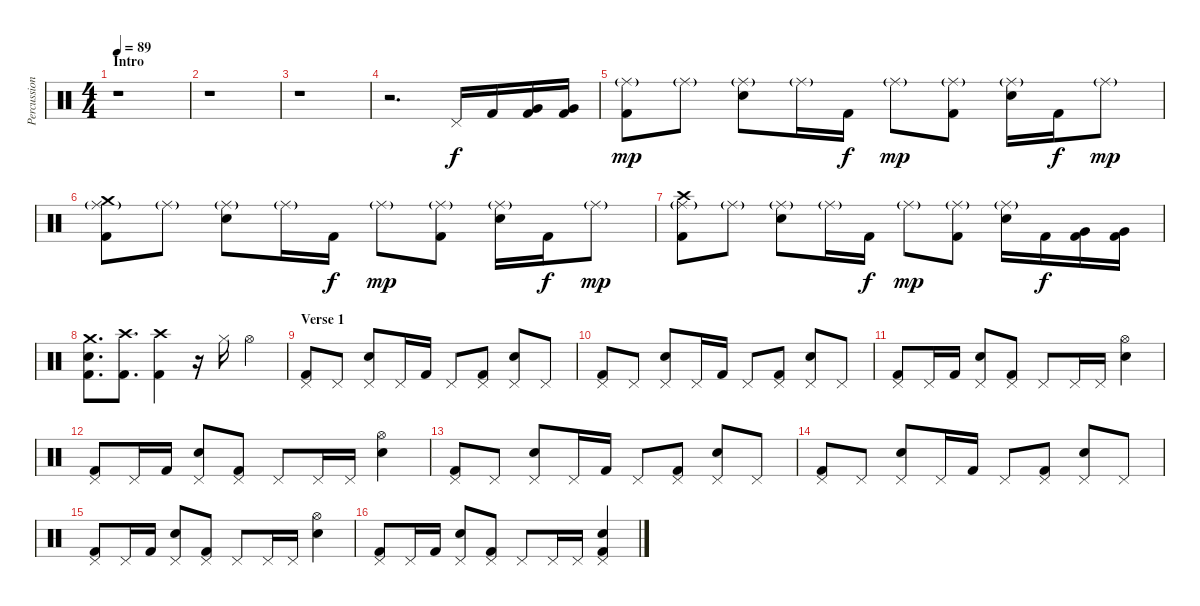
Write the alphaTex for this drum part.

\track ("Percussions" "Percussion") {instrument percussion}
\staff {score}
\articulation defaults
\ts (4 4)
\section ("" "Intro")
\tempo 89
\clef neutral
\ks c
r.1{dy f} |
r.1 |
r.1 |
r.2{d} "Pedal Hi-Hat (hit)".16 "Kick (hit) 2".16 ("Very Low Tom (hit)" "Kick (hit) 2").16 ("Very Low Tom (hit)" "Kick (hit) 2").16 |
("Ride (middle)"{g} "Kick (hit) 2").8{dy mp} "Ride (middle)"{g}.8 ("Ride (middle)"{g} "Electric Snare (hit)").8 "Ride (middle)"{g}.16 "Kick (hit) 2".16{dy f} "Ride (middle)"{g}.8{dy mp} ("Ride (middle)"{g} "Kick (hit) 2").8 ("Ride (middle)"{g} "Electric Snare (hit)").16 "Kick (hit) 2".16{dy f} "Ride (middle)"{g}.8{dy mp} |
("Crash medium (hit)" "Ride (middle)"{g} "Kick (hit) 2").8 "Ride (middle)"{g}.8 ("Ride (middle)"{g} "Electric Snare (hit)").8 "Ride (middle)"{g}.16 "Kick (hit) 2".16{dy f} "Ride (middle)"{g}.8{dy mp} ("Ride (middle)"{g} "Kick (hit) 2").8 ("Ride (middle)"{g} "Electric Snare (hit)").16 "Kick (hit) 2".16{dy f} "Ride (middle)"{g}.8{dy mp} |
("Crash high (hit)" "Ride (middle)"{g} "Kick (hit) 2").8 "Ride (middle)"{g}.8 ("Ride (middle)"{g} "Electric Snare (hit)").8 "Ride (middle)"{g}.16 "Kick (hit) 2".16{dy f} "Ride (middle)"{g}.8{dy mp} ("Ride (middle)"{g} "Kick (hit) 2").8 ("Ride (middle)"{g} "Electric Snare (hit)").16 "Kick (hit) 2".16{dy f} ("Very Low Tom (hit)" "Kick (hit) 2").16 ("Very Low Tom (hit)" "Kick (hit) 2").16 |
("Crash medium (hit)" "Electric Snare (hit)" "Kick (hit) 2").8{d} ("Crash high (hit)" "Kick (hit) 2").8{d} ("Crash high (hit)" "Kick (hit) 2").4 r.16 "Hi-Hat (closed)".16 "Hi-Hat (open)".4 |
\section ("" "Verse 1")
("Pedal Hi-Hat (hit)" "Kick (hit) 2").8 "Pedal Hi-Hat (hit)".8 ("Pedal Hi-Hat (hit)" "Electric Snare (hit)").8 "Pedal Hi-Hat (hit)".16 "Kick (hit) 2".16 "Pedal Hi-Hat (hit)".8 ("Pedal Hi-Hat (hit)" "Kick (hit) 2").8 ("Pedal Hi-Hat (hit)" "Electric Snare (hit)").8 "Pedal Hi-Hat (hit)".8 |
("Pedal Hi-Hat (hit)" "Kick (hit) 2").8 "Pedal Hi-Hat (hit)".8 ("Pedal Hi-Hat (hit)" "Electric Snare (hit)").8 "Pedal Hi-Hat (hit)".16 "Kick (hit) 2".16 "Pedal Hi-Hat (hit)".8 ("Pedal Hi-Hat (hit)" "Kick (hit) 2").8 ("Pedal Hi-Hat (hit)" "Electric Snare (hit)").8 "Pedal Hi-Hat (hit)".8 |
("Pedal Hi-Hat (hit)" "Kick (hit) 2").8 "Pedal Hi-Hat (hit)".16 "Kick (hit) 2".16 ("Pedal Hi-Hat (hit)" "Electric Snare (hit)").8 ("Pedal Hi-Hat (hit)" "Kick (hit) 2").8 "Pedal Hi-Hat (hit)".8 "Pedal Hi-Hat (hit)".16 "Pedal Hi-Hat (hit)".16 ("Hi-Hat (open)" "Electric Snare (hit)").4 |
("Pedal Hi-Hat (hit)" "Kick (hit) 2").8 "Pedal Hi-Hat (hit)".16 "Kick (hit) 2".16 ("Pedal Hi-Hat (hit)" "Electric Snare (hit)").8 ("Pedal Hi-Hat (hit)" "Kick (hit) 2").8 "Pedal Hi-Hat (hit)".8 "Pedal Hi-Hat (hit)".16 "Pedal Hi-Hat (hit)".16 ("Hi-Hat (open)" "Electric Snare (hit)").4 |
("Pedal Hi-Hat (hit)" "Kick (hit) 2").8 "Pedal Hi-Hat (hit)".8 ("Pedal Hi-Hat (hit)" "Electric Snare (hit)").8 "Pedal Hi-Hat (hit)".16 "Kick (hit) 2".16 "Pedal Hi-Hat (hit)".8 ("Pedal Hi-Hat (hit)" "Kick (hit) 2").8 ("Pedal Hi-Hat (hit)" "Electric Snare (hit)").8 "Pedal Hi-Hat (hit)".8 |
("Pedal Hi-Hat (hit)" "Kick (hit) 2").8 "Pedal Hi-Hat (hit)".8 ("Pedal Hi-Hat (hit)" "Electric Snare (hit)").8 "Pedal Hi-Hat (hit)".16 "Kick (hit) 2".16 "Pedal Hi-Hat (hit)".8 ("Pedal Hi-Hat (hit)" "Kick (hit) 2").8 ("Pedal Hi-Hat (hit)" "Electric Snare (hit)").8 "Pedal Hi-Hat (hit)".8 |
("Pedal Hi-Hat (hit)" "Kick (hit) 2").8 "Pedal Hi-Hat (hit)".16 "Kick (hit) 2".16 ("Pedal Hi-Hat (hit)" "Electric Snare (hit)").8 ("Pedal Hi-Hat (hit)" "Kick (hit) 2").8 "Pedal Hi-Hat (hit)".8 "Pedal Hi-Hat (hit)".16 "Pedal Hi-Hat (hit)".16 ("Hi-Hat (open)" "Electric Snare (hit)").4 |
("Pedal Hi-Hat (hit)" "Kick (hit) 2").8 "Pedal Hi-Hat (hit)".16 "Kick (hit) 2".16 ("Pedal Hi-Hat (hit)" "Electric Snare (hit)").8 ("Pedal Hi-Hat (hit)" "Kick (hit) 2").8 "Pedal Hi-Hat (hit)".8 "Pedal Hi-Hat (hit)".16 "Pedal Hi-Hat (hit)".16 ("Pedal Hi-Hat (hit)" "Electric Snare (hit)" "Kick (hit) 2").4
